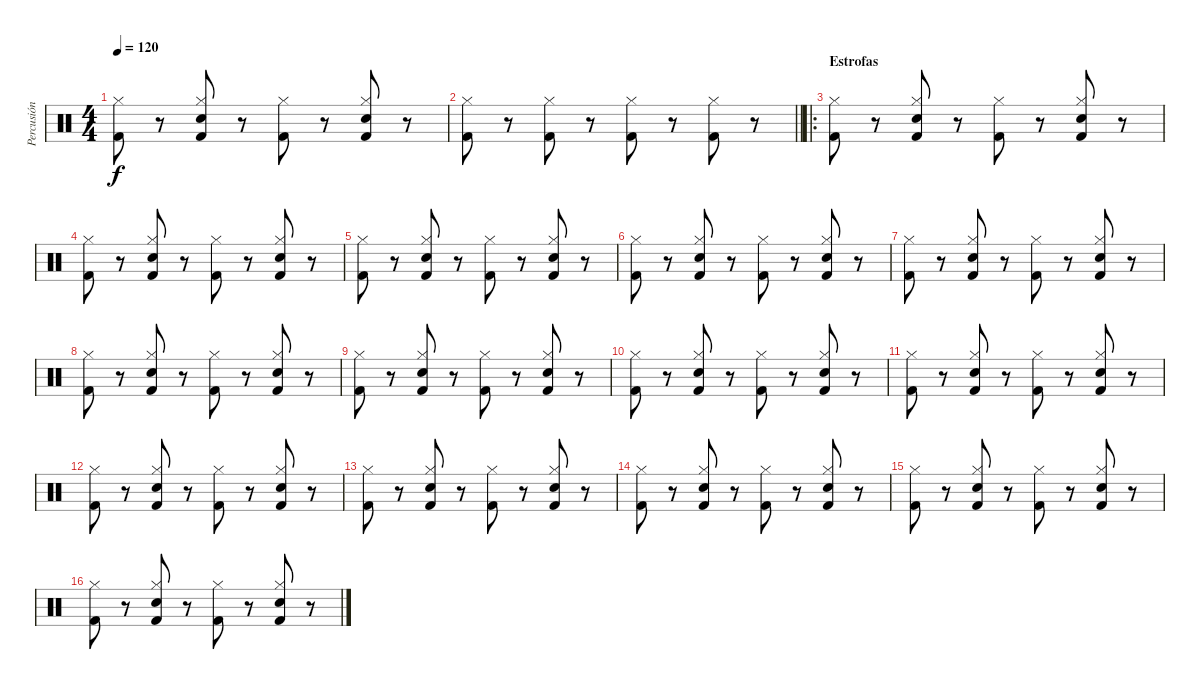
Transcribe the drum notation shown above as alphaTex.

\track ("Percusión" "Percusión") {instrument percussion}
\staff {score}
\articulation defaults
\ts (4 4)
\tempo 120
\clef neutral
\ks c
("Kick (hit) 2" "Hi-Hat (closed)").8{dy f} r.8 ("Kick (hit) 2" "Hi-Hat (closed)" "Snare (hit) 2").8 r.8 ("Kick (hit) 2" "Hi-Hat (closed)").8 r.8 ("Kick (hit) 2" "Hi-Hat (closed)" "Snare (hit) 2").8 r.8 |
\barLineRight lightlight
("Kick (hit) 2" "Hi-Hat (closed)").8 r.8 ("Kick (hit) 2" "Hi-Hat (closed)").8 r.8 ("Kick (hit) 2" "Hi-Hat (closed)").8 r.8 ("Kick (hit) 2" "Hi-Hat (closed)").8 r.8 |
\ro
\section ("" "Estrofas")
("Kick (hit) 2" "Hi-Hat (closed)").8 r.8 ("Kick (hit) 2" "Hi-Hat (closed)" "Snare (hit) 2").8 r.8 ("Kick (hit) 2" "Hi-Hat (closed)").8 r.8 ("Kick (hit) 2" "Hi-Hat (closed)" "Snare (hit) 2").8 r.8 |
("Kick (hit) 2" "Hi-Hat (closed)").8 r.8 ("Kick (hit) 2" "Hi-Hat (closed)" "Snare (hit) 2").8 r.8 ("Kick (hit) 2" "Hi-Hat (closed)").8 r.8 ("Kick (hit) 2" "Hi-Hat (closed)" "Snare (hit) 2").8 r.8 |
("Kick (hit) 2" "Hi-Hat (closed)").8 r.8 ("Kick (hit) 2" "Hi-Hat (closed)" "Snare (hit) 2").8 r.8 ("Kick (hit) 2" "Hi-Hat (closed)").8 r.8 ("Kick (hit) 2" "Hi-Hat (closed)" "Snare (hit) 2").8 r.8 |
("Kick (hit) 2" "Hi-Hat (closed)").8 r.8 ("Kick (hit) 2" "Hi-Hat (closed)" "Snare (hit) 2").8 r.8 ("Kick (hit) 2" "Hi-Hat (closed)").8 r.8 ("Kick (hit) 2" "Hi-Hat (closed)" "Snare (hit) 2").8 r.8 |
("Kick (hit) 2" "Hi-Hat (closed)").8 r.8 ("Kick (hit) 2" "Hi-Hat (closed)" "Snare (hit) 2").8 r.8 ("Kick (hit) 2" "Hi-Hat (closed)").8 r.8 ("Kick (hit) 2" "Hi-Hat (closed)" "Snare (hit) 2").8 r.8 |
("Kick (hit) 2" "Hi-Hat (closed)").8 r.8 ("Kick (hit) 2" "Hi-Hat (closed)" "Snare (hit) 2").8 r.8 ("Kick (hit) 2" "Hi-Hat (closed)").8 r.8 ("Kick (hit) 2" "Hi-Hat (closed)" "Snare (hit) 2").8 r.8 |
("Kick (hit) 2" "Hi-Hat (closed)").8 r.8 ("Kick (hit) 2" "Hi-Hat (closed)" "Snare (hit) 2").8 r.8 ("Kick (hit) 2" "Hi-Hat (closed)").8 r.8 ("Kick (hit) 2" "Hi-Hat (closed)" "Snare (hit) 2").8 r.8 |
("Kick (hit) 2" "Hi-Hat (closed)").8 r.8 ("Kick (hit) 2" "Hi-Hat (closed)" "Snare (hit) 2").8 r.8 ("Kick (hit) 2" "Hi-Hat (closed)").8 r.8 ("Kick (hit) 2" "Hi-Hat (closed)" "Snare (hit) 2").8 r.8 |
("Kick (hit) 2" "Hi-Hat (closed)").8 r.8 ("Kick (hit) 2" "Hi-Hat (closed)" "Snare (hit) 2").8 r.8 ("Kick (hit) 2" "Hi-Hat (closed)").8 r.8 ("Kick (hit) 2" "Hi-Hat (closed)" "Snare (hit) 2").8 r.8 |
("Kick (hit) 2" "Hi-Hat (closed)").8 r.8 ("Kick (hit) 2" "Hi-Hat (closed)" "Snare (hit) 2").8 r.8 ("Kick (hit) 2" "Hi-Hat (closed)").8 r.8 ("Kick (hit) 2" "Hi-Hat (closed)" "Snare (hit) 2").8 r.8 |
("Kick (hit) 2" "Hi-Hat (closed)").8 r.8 ("Kick (hit) 2" "Hi-Hat (closed)" "Snare (hit) 2").8 r.8 ("Kick (hit) 2" "Hi-Hat (closed)").8 r.8 ("Kick (hit) 2" "Hi-Hat (closed)" "Snare (hit) 2").8 r.8 |
("Kick (hit) 2" "Hi-Hat (closed)").8 r.8 ("Kick (hit) 2" "Hi-Hat (closed)" "Snare (hit) 2").8 r.8 ("Kick (hit) 2" "Hi-Hat (closed)").8 r.8 ("Kick (hit) 2" "Hi-Hat (closed)" "Snare (hit) 2").8 r.8 |
("Kick (hit) 2" "Hi-Hat (closed)").8 r.8 ("Kick (hit) 2" "Hi-Hat (closed)" "Snare (hit) 2").8 r.8 ("Kick (hit) 2" "Hi-Hat (closed)").8 r.8 ("Kick (hit) 2" "Hi-Hat (closed)" "Snare (hit) 2").8 r.8 |
("Kick (hit) 2" "Hi-Hat (closed)").8 r.8 ("Kick (hit) 2" "Hi-Hat (closed)" "Snare (hit) 2").8 r.8 ("Kick (hit) 2" "Hi-Hat (closed)").8 r.8 ("Kick (hit) 2" "Hi-Hat (closed)" "Snare (hit) 2").8 r.8
